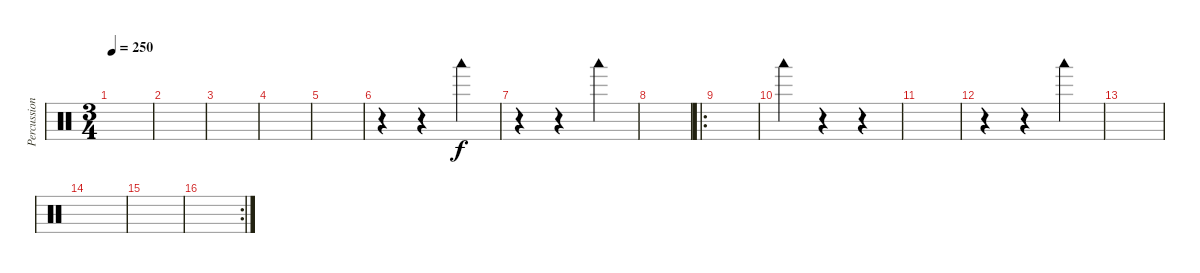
\track ("Percussion" "Percussion") {instrument percussion}
\staff {score}
\articulation defaults
\ts (3 4)
\tempo 250
\clef neutral
\ks c
|
|
|
|
|
r.4 r.4 "Woodblock low (hit)".4 |
r.4 r.4 "Woodblock low (hit)".4 |
|
\ro
|
"Woodblock low (hit)".4 r.4 r.4 |
|
r.4 r.4 "Woodblock low (hit)".4 |
|
|
|
\rc 2
